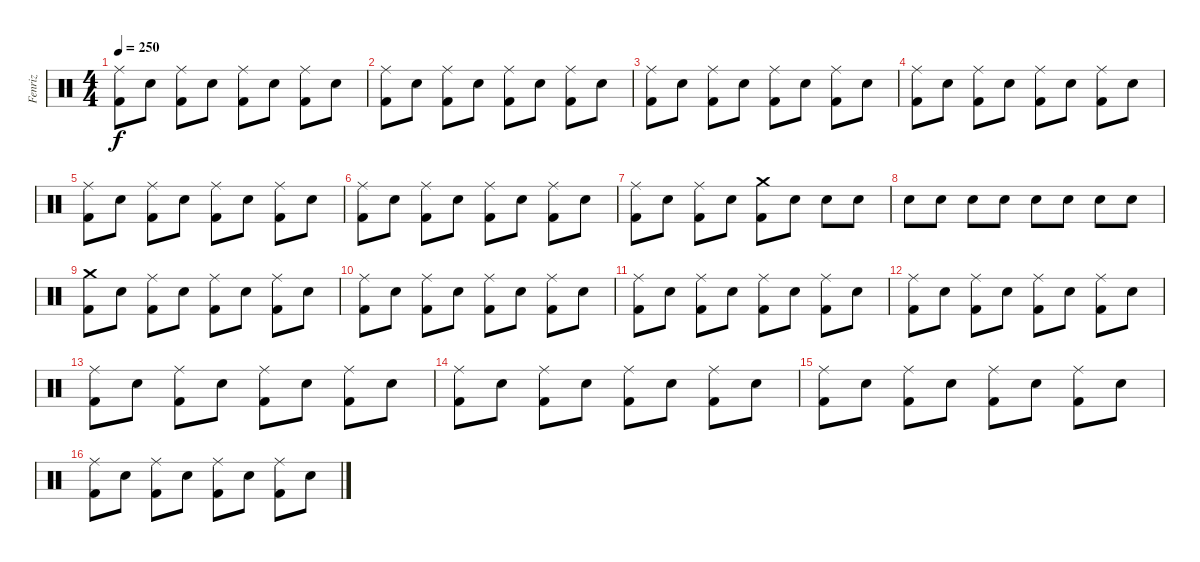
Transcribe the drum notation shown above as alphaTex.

\track ("Fenriz" "Fenriz") {instrument percussion}
\staff {score}
\articulation defaults
\ts (4 4)
\tempo 250
\clef neutral
\ks c
("Ride (middle)" "Kick (hit) 2").8{dy f} "Electric Snare (hit)".8 ("Ride (middle)" "Kick (hit) 2").8 "Electric Snare (hit)".8 ("Ride (middle)" "Kick (hit) 2").8 "Electric Snare (hit)".8 ("Ride (middle)" "Kick (hit) 2").8 "Electric Snare (hit)".8 |
("Ride (middle)" "Kick (hit) 2").8 "Electric Snare (hit)".8 ("Ride (middle)" "Kick (hit) 2").8 "Electric Snare (hit)".8 ("Ride (middle)" "Kick (hit) 2").8 "Electric Snare (hit)".8 ("Ride (middle)" "Kick (hit) 2").8 "Electric Snare (hit)".8 |
("Ride (middle)" "Kick (hit) 2").8 "Electric Snare (hit)".8 ("Ride (middle)" "Kick (hit) 2").8 "Electric Snare (hit)".8 ("Ride (middle)" "Kick (hit) 2").8 "Electric Snare (hit)".8 ("Ride (middle)" "Kick (hit) 2").8 "Electric Snare (hit)".8 |
("Ride (middle)" "Kick (hit) 2").8 "Electric Snare (hit)".8 ("Ride (middle)" "Kick (hit) 2").8 "Electric Snare (hit)".8 ("Ride (middle)" "Kick (hit) 2").8 "Electric Snare (hit)".8 ("Ride (middle)" "Kick (hit) 2").8 "Electric Snare (hit)".8 |
("Ride (middle)" "Kick (hit) 2").8 "Electric Snare (hit)".8 ("Ride (middle)" "Kick (hit) 2").8 "Electric Snare (hit)".8 ("Ride (middle)" "Kick (hit) 2").8 "Electric Snare (hit)".8 ("Ride (middle)" "Kick (hit) 2").8 "Electric Snare (hit)".8 |
("Ride (middle)" "Kick (hit) 2").8 "Electric Snare (hit)".8 ("Ride (middle)" "Kick (hit) 2").8 "Electric Snare (hit)".8 ("Ride (middle)" "Kick (hit) 2").8 "Electric Snare (hit)".8 ("Ride (middle)" "Kick (hit) 2").8 "Electric Snare (hit)".8 |
("Ride (middle)" "Kick (hit) 2").8 "Electric Snare (hit)".8 ("Ride (middle)" "Kick (hit) 2").8 "Electric Snare (hit)".8 ("Crash medium (hit)" "Kick (hit) 2").8 "Electric Snare (hit)".8 "Electric Snare (hit)".8 "Electric Snare (hit)".8 |
"Electric Snare (hit)".8 "Electric Snare (hit)".8 "Electric Snare (hit)".8 "Electric Snare (hit)".8 "Electric Snare (hit)".8 "Electric Snare (hit)".8 "Electric Snare (hit)".8 "Electric Snare (hit)".8 |
("Crash medium (hit)" "Kick (hit) 2").8 "Electric Snare (hit)".8 ("Ride (middle)" "Kick (hit) 2").8 "Electric Snare (hit)".8 ("Ride (middle)" "Kick (hit) 2").8 "Electric Snare (hit)".8 ("Ride (middle)" "Kick (hit) 2").8 "Electric Snare (hit)".8 |
("Ride (middle)" "Kick (hit) 2").8 "Electric Snare (hit)".8 ("Ride (middle)" "Kick (hit) 2").8 "Electric Snare (hit)".8 ("Ride (middle)" "Kick (hit) 2").8 "Electric Snare (hit)".8 ("Ride (middle)" "Kick (hit) 2").8 "Electric Snare (hit)".8 |
("Ride (middle)" "Kick (hit) 2").8 "Electric Snare (hit)".8 ("Ride (middle)" "Kick (hit) 2").8 "Electric Snare (hit)".8 ("Ride (middle)" "Kick (hit) 2").8 "Electric Snare (hit)".8 ("Ride (middle)" "Kick (hit) 2").8 "Electric Snare (hit)".8 |
("Ride (middle)" "Kick (hit) 2").8 "Electric Snare (hit)".8 ("Ride (middle)" "Kick (hit) 2").8 "Electric Snare (hit)".8 ("Ride (middle)" "Kick (hit) 2").8 "Electric Snare (hit)".8 ("Ride (middle)" "Kick (hit) 2").8 "Electric Snare (hit)".8 |
("Ride (middle)" "Kick (hit) 2").8 "Electric Snare (hit)".8 ("Ride (middle)" "Kick (hit) 2").8 "Electric Snare (hit)".8 ("Ride (middle)" "Kick (hit) 2").8 "Electric Snare (hit)".8 ("Ride (middle)" "Kick (hit) 2").8 "Electric Snare (hit)".8 |
("Ride (middle)" "Kick (hit) 2").8 "Electric Snare (hit)".8 ("Ride (middle)" "Kick (hit) 2").8 "Electric Snare (hit)".8 ("Ride (middle)" "Kick (hit) 2").8 "Electric Snare (hit)".8 ("Ride (middle)" "Kick (hit) 2").8 "Electric Snare (hit)".8 |
("Ride (middle)" "Kick (hit) 2").8 "Electric Snare (hit)".8 ("Ride (middle)" "Kick (hit) 2").8 "Electric Snare (hit)".8 ("Ride (middle)" "Kick (hit) 2").8 "Electric Snare (hit)".8 ("Ride (middle)" "Kick (hit) 2").8 "Electric Snare (hit)".8 |
("Ride (middle)" "Kick (hit) 2").8 "Electric Snare (hit)".8 ("Ride (middle)" "Kick (hit) 2").8 "Electric Snare (hit)".8 ("Ride (middle)" "Kick (hit) 2").8 "Electric Snare (hit)".8 ("Ride (middle)" "Kick (hit) 2").8 "Electric Snare (hit)".8
